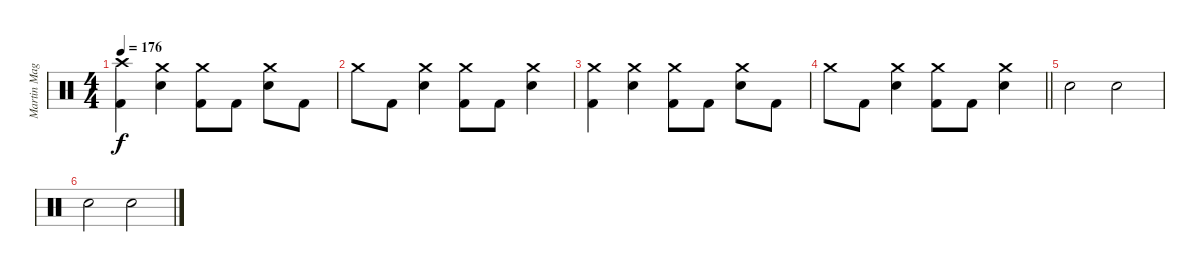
\track ("Martin Magliano" "Martin Mag") {instrument percussion}
\staff {score}
\articulation defaults
\ts (4 4)
\tempo 176
\clef neutral
\ks c
("Crash high (hit)" "Kick (hit) 2").4{dy f} ("Crash medium (hit)" "Snare (hit) 2").4 ("Crash medium (hit)" "Kick (hit) 2").8 "Kick (hit) 2".8 ("Crash medium (hit)" "Snare (hit) 2").8 "Kick (hit) 2".8 |
"Crash medium (hit)".8 "Kick (hit) 2".8 ("Crash medium (hit)" "Snare (hit) 2").4 ("Crash medium (hit)" "Kick (hit) 2").8 "Kick (hit) 2".8 ("Crash medium (hit)" "Snare (hit) 2").4 |
("Crash medium (hit)" "Kick (hit) 2").4 ("Crash medium (hit)" "Snare (hit) 2").4 ("Crash medium (hit)" "Kick (hit) 2").8 "Kick (hit) 2".8 ("Crash medium (hit)" "Snare (hit) 2").8 "Kick (hit) 2".8 |
\barLineRight lightlight "Crash medium (hit)".8 "Kick (hit) 2".8
("Crash medium (hit)" "Snare (hit) 2").4 ("Crash medium (hit)" "Kick (hit) 2").8 "Kick (hit) 2".8 ("Crash medium (hit)" "Snare (hit) 2").4 |
"Snare (hit)".2 "Snare (hit)".2 |
"Snare (hit)".2 "Snare (hit)".2
